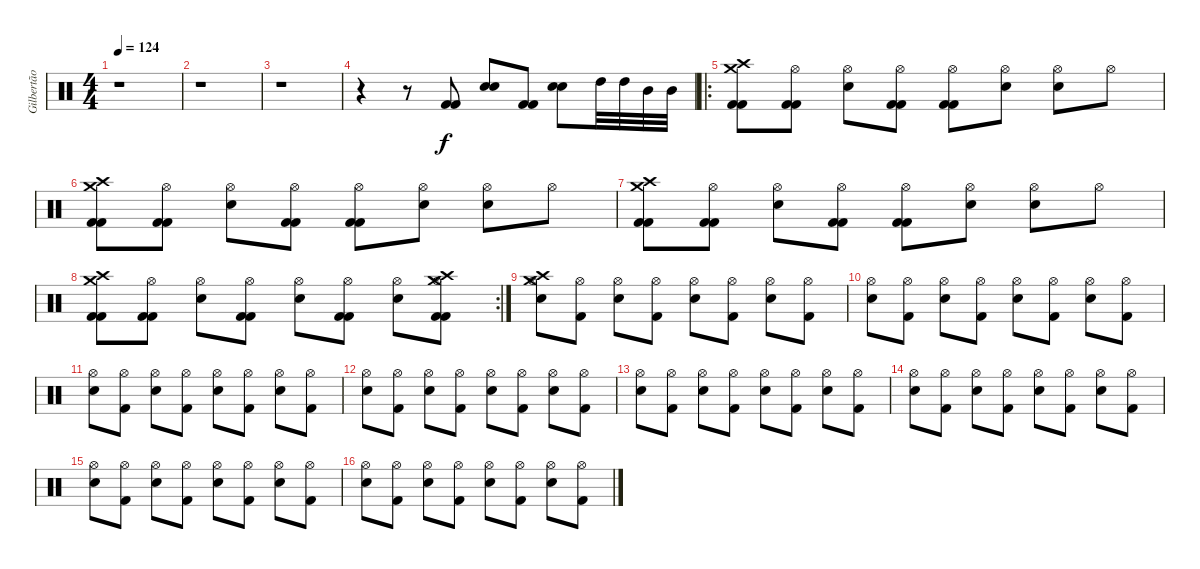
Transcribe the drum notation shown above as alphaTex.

\track ("Gilbertão (Drums)" "Gilbertão ") {instrument percussion}
\staff {score}
\articulation defaults
\ts (4 4)
\tempo 124
\clef neutral
\ks c
r.1{dy f} |
r.1 |
r.1 |
r.4 r.8 ("Kick (hit) 2" "Kick (hit) 2").8 ("Snare (hit) 2" "Snare (hit) 2").8 ("Kick (hit) 2" "Kick (hit) 2").8 ("Snare (hit) 2" "Snare (hit) 2").8 "High Tom (hit)".32 "High Tom (hit)".32 "Mid Tom (hit)".32 "Mid Tom (hit)".32 |
\ro
("Crash medium (hit)" "Crash high (hit)" "Kick (hit) 2" "Kick (hit) 2").8 ("Hi-Hat (open)" "Kick (hit) 2" "Kick (hit) 2").8 ("Hi-Hat (open)" "Snare (hit) 2").8 ("Hi-Hat (open)" "Kick (hit) 2" "Kick (hit) 2").8 ("Hi-Hat (open)" "Kick (hit) 2" "Kick (hit) 2").8 ("Hi-Hat (open)" "Snare (hit) 2").8 ("Hi-Hat (open)" "Snare (hit) 2").8 "Hi-Hat (open)".8 |
("Crash medium (hit)" "Crash high (hit)" "Kick (hit) 2" "Kick (hit) 2").8 ("Hi-Hat (open)" "Kick (hit) 2" "Kick (hit) 2").8 ("Hi-Hat (open)" "Snare (hit) 2").8 ("Hi-Hat (open)" "Kick (hit) 2" "Kick (hit) 2").8 ("Hi-Hat (open)" "Kick (hit) 2" "Kick (hit) 2").8 ("Hi-Hat (open)" "Snare (hit) 2").8 ("Hi-Hat (open)" "Snare (hit) 2").8 "Hi-Hat (open)".8 |
("Crash medium (hit)" "Crash high (hit)" "Kick (hit) 2" "Kick (hit) 2").8 ("Hi-Hat (open)" "Kick (hit) 2" "Kick (hit) 2").8 ("Hi-Hat (open)" "Snare (hit) 2").8 ("Hi-Hat (open)" "Kick (hit) 2" "Kick (hit) 2").8 ("Hi-Hat (open)" "Kick (hit) 2" "Kick (hit) 2").8 ("Hi-Hat (open)" "Snare (hit) 2").8 ("Hi-Hat (open)" "Snare (hit) 2").8 "Hi-Hat (open)".8 |
\rc 2
("Crash medium (hit)" "Crash high (hit)" "Kick (hit) 2" "Kick (hit) 2").8 ("Hi-Hat (open)" "Kick (hit) 2" "Kick (hit) 2").8 ("Hi-Hat (open)" "Snare (hit) 2").8 ("Hi-Hat (open)" "Kick (hit) 2" "Kick (hit) 2").8 ("Hi-Hat (open)" "Snare (hit) 2").8 ("Hi-Hat (open)" "Kick (hit) 2" "Kick (hit) 2").8 ("Hi-Hat (open)" "Snare (hit) 2").8 ("Hi-Hat (open)" "Kick (hit) 2" "Kick (hit) 2" "Crash medium (hit)" "Crash high (hit)").8 |
("Hi-Hat (open)" "Snare (hit) 2" "Crash medium (hit)" "Crash high (hit)").8 ("Hi-Hat (open)" "Kick (hit) 2").8 ("Hi-Hat (open)" "Snare (hit) 2").8 ("Hi-Hat (open)" "Kick (hit) 2").8 ("Hi-Hat (open)" "Snare (hit) 2").8 ("Hi-Hat (open)" "Kick (hit) 2").8 ("Hi-Hat (open)" "Snare (hit) 2").8 ("Hi-Hat (open)" "Kick (hit) 2").8 |
("Hi-Hat (open)" "Snare (hit) 2").8 ("Hi-Hat (open)" "Kick (hit) 2").8 ("Hi-Hat (open)" "Snare (hit) 2").8 ("Hi-Hat (open)" "Kick (hit) 2").8 ("Hi-Hat (open)" "Snare (hit) 2").8 ("Hi-Hat (open)" "Kick (hit) 2").8 ("Hi-Hat (open)" "Snare (hit) 2").8 ("Hi-Hat (open)" "Kick (hit) 2").8 |
("Hi-Hat (open)" "Snare (hit) 2").8 ("Hi-Hat (open)" "Kick (hit) 2").8 ("Hi-Hat (open)" "Snare (hit) 2").8 ("Hi-Hat (open)" "Kick (hit) 2").8 ("Hi-Hat (open)" "Snare (hit) 2").8 ("Hi-Hat (open)" "Kick (hit) 2").8 ("Hi-Hat (open)" "Snare (hit) 2").8 ("Hi-Hat (open)" "Kick (hit) 2").8 |
("Hi-Hat (open)" "Snare (hit) 2").8 ("Hi-Hat (open)" "Kick (hit) 2").8 ("Hi-Hat (open)" "Snare (hit) 2").8 ("Hi-Hat (open)" "Kick (hit) 2").8 ("Hi-Hat (open)" "Snare (hit) 2").8 ("Hi-Hat (open)" "Kick (hit) 2").8 ("Hi-Hat (open)" "Snare (hit) 2").8 ("Hi-Hat (open)" "Kick (hit) 2").8 |
("Hi-Hat (open)" "Snare (hit) 2").8 ("Hi-Hat (open)" "Kick (hit) 2").8 ("Hi-Hat (open)" "Snare (hit) 2").8 ("Hi-Hat (open)" "Kick (hit) 2").8 ("Hi-Hat (open)" "Snare (hit) 2").8 ("Hi-Hat (open)" "Kick (hit) 2").8 ("Hi-Hat (open)" "Snare (hit) 2").8 ("Hi-Hat (open)" "Kick (hit) 2").8 |
("Hi-Hat (open)" "Snare (hit) 2").8 ("Hi-Hat (open)" "Kick (hit) 2").8 ("Hi-Hat (open)" "Snare (hit) 2").8 ("Hi-Hat (open)" "Kick (hit) 2").8 ("Hi-Hat (open)" "Snare (hit) 2").8 ("Hi-Hat (open)" "Kick (hit) 2").8 ("Hi-Hat (open)" "Snare (hit) 2").8 ("Hi-Hat (open)" "Kick (hit) 2").8 |
("Hi-Hat (open)" "Snare (hit) 2").8 ("Hi-Hat (open)" "Kick (hit) 2").8 ("Hi-Hat (open)" "Snare (hit) 2").8 ("Hi-Hat (open)" "Kick (hit) 2").8 ("Hi-Hat (open)" "Snare (hit) 2").8 ("Hi-Hat (open)" "Kick (hit) 2").8 ("Hi-Hat (open)" "Snare (hit) 2").8 ("Hi-Hat (open)" "Kick (hit) 2").8 |
("Hi-Hat (open)" "Snare (hit) 2").8 ("Hi-Hat (open)" "Kick (hit) 2").8 ("Hi-Hat (open)" "Snare (hit) 2").8 ("Hi-Hat (open)" "Kick (hit) 2").8 ("Hi-Hat (open)" "Snare (hit) 2").8 ("Hi-Hat (open)" "Kick (hit) 2").8 ("Hi-Hat (open)" "Snare (hit) 2").8 ("Hi-Hat (open)" "Kick (hit) 2").8
